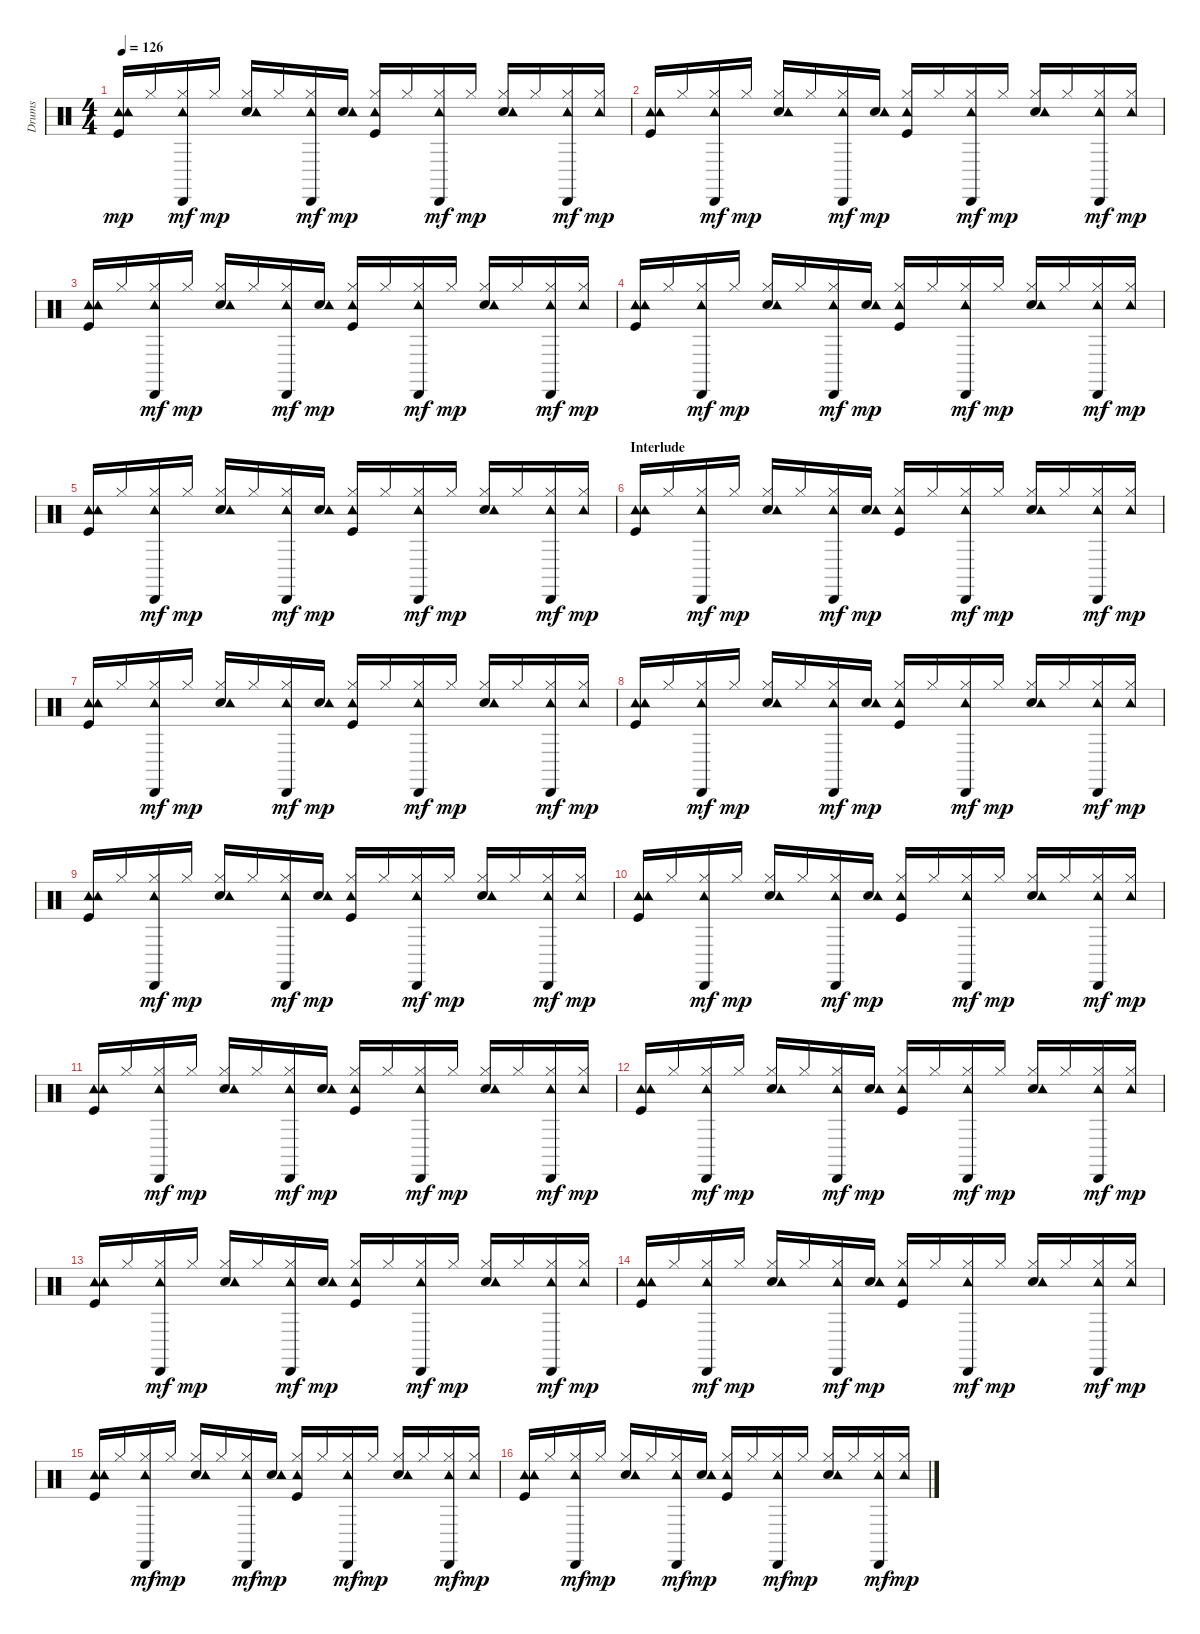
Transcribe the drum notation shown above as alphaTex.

\track ("Drums" "Drums") {instrument percussion}
\staff {score}
\articulation defaults
\ts (4 4)
\tempo 126
\clef neutral
\ks c
("Kick (hit)" "Tambourine (hit)" "Tambourine (hit)").16{dy mp} "Hi-Hat (closed)".16 ("Hi-Hat (closed)" "Tambourine (hit)" "Cabasa (hit)").16{dy mf} "Hi-Hat (closed)".16{dy mp} ("Snare (hit) 2" "Hi-Hat (closed)" "Tambourine (hit)").16 "Hi-Hat (closed)".16 ("Hi-Hat (closed)" "Tambourine (hit)" "Cabasa (hit)").16{dy mf} ("Snare (hit) 2" "Tambourine (hit)").16{dy mp} ("Kick (hit)" "Hi-Hat (closed)" "Tambourine (hit)").16 "Hi-Hat (closed)".16 ("Hi-Hat (closed)" "Tambourine (hit)" "Cabasa (hit)").16{dy mf} "Hi-Hat (closed)".16{dy mp} ("Snare (hit) 2" "Hi-Hat (closed)" "Tambourine (hit)").16 "Hi-Hat (closed)".16 ("Hi-Hat (closed)" "Tambourine (hit)" "Cabasa (hit)").16{dy mf} ("Hi-Hat (closed)" "Tambourine (hit)").16{dy mp} |
("Kick (hit)" "Tambourine (hit)" "Tambourine (hit)").16 "Hi-Hat (closed)".16 ("Hi-Hat (closed)" "Tambourine (hit)" "Cabasa (hit)").16{dy mf} "Hi-Hat (closed)".16{dy mp} ("Snare (hit) 2" "Hi-Hat (closed)" "Tambourine (hit)").16 "Hi-Hat (closed)".16 ("Hi-Hat (closed)" "Tambourine (hit)" "Cabasa (hit)").16{dy mf} ("Snare (hit) 2" "Tambourine (hit)").16{dy mp} ("Kick (hit)" "Hi-Hat (closed)" "Tambourine (hit)").16 "Hi-Hat (closed)".16 ("Hi-Hat (closed)" "Tambourine (hit)" "Cabasa (hit)").16{dy mf} "Hi-Hat (closed)".16{dy mp} ("Snare (hit) 2" "Hi-Hat (closed)" "Tambourine (hit)").16 "Hi-Hat (closed)".16 ("Hi-Hat (closed)" "Tambourine (hit)" "Cabasa (hit)").16{dy mf} ("Hi-Hat (closed)" "Tambourine (hit)").16{dy mp} |
("Kick (hit)" "Tambourine (hit)" "Tambourine (hit)").16 "Hi-Hat (closed)".16 ("Hi-Hat (closed)" "Tambourine (hit)" "Cabasa (hit)").16{dy mf} "Hi-Hat (closed)".16{dy mp} ("Snare (hit) 2" "Hi-Hat (closed)" "Tambourine (hit)").16 "Hi-Hat (closed)".16 ("Hi-Hat (closed)" "Tambourine (hit)" "Cabasa (hit)").16{dy mf} ("Snare (hit) 2" "Tambourine (hit)").16{dy mp} ("Kick (hit)" "Hi-Hat (closed)" "Tambourine (hit)").16 "Hi-Hat (closed)".16 ("Hi-Hat (closed)" "Tambourine (hit)" "Cabasa (hit)").16{dy mf} "Hi-Hat (closed)".16{dy mp} ("Snare (hit) 2" "Hi-Hat (closed)" "Tambourine (hit)").16 "Hi-Hat (closed)".16 ("Hi-Hat (closed)" "Tambourine (hit)" "Cabasa (hit)").16{dy mf} ("Hi-Hat (closed)" "Tambourine (hit)").16{dy mp} |
("Kick (hit)" "Tambourine (hit)" "Tambourine (hit)").16 "Hi-Hat (closed)".16 ("Hi-Hat (closed)" "Tambourine (hit)" "Cabasa (hit)").16{dy mf} "Hi-Hat (closed)".16{dy mp} ("Snare (hit) 2" "Hi-Hat (closed)" "Tambourine (hit)").16 "Hi-Hat (closed)".16 ("Hi-Hat (closed)" "Tambourine (hit)" "Cabasa (hit)").16{dy mf} ("Snare (hit) 2" "Tambourine (hit)").16{dy mp} ("Kick (hit)" "Hi-Hat (closed)" "Tambourine (hit)").16 "Hi-Hat (closed)".16 ("Hi-Hat (closed)" "Tambourine (hit)" "Cabasa (hit)").16{dy mf} "Hi-Hat (closed)".16{dy mp} ("Snare (hit) 2" "Hi-Hat (closed)" "Tambourine (hit)").16 "Hi-Hat (closed)".16 ("Hi-Hat (closed)" "Tambourine (hit)" "Cabasa (hit)").16{dy mf} ("Hi-Hat (closed)" "Tambourine (hit)").16{dy mp} |
("Kick (hit)" "Tambourine (hit)" "Tambourine (hit)").16 "Hi-Hat (closed)".16 ("Hi-Hat (closed)" "Tambourine (hit)" "Cabasa (hit)").16{dy mf} "Hi-Hat (closed)".16{dy mp} ("Snare (hit) 2" "Hi-Hat (closed)" "Tambourine (hit)").16 "Hi-Hat (closed)".16 ("Hi-Hat (closed)" "Tambourine (hit)" "Cabasa (hit)").16{dy mf} ("Snare (hit) 2" "Tambourine (hit)").16{dy mp} ("Kick (hit)" "Hi-Hat (closed)" "Tambourine (hit)").16 "Hi-Hat (closed)".16 ("Hi-Hat (closed)" "Tambourine (hit)" "Cabasa (hit)").16{dy mf} "Hi-Hat (closed)".16{dy mp} ("Snare (hit) 2" "Hi-Hat (closed)" "Tambourine (hit)").16 "Hi-Hat (closed)".16 ("Hi-Hat (closed)" "Tambourine (hit)" "Cabasa (hit)").16{dy mf} ("Hi-Hat (closed)" "Tambourine (hit)").16{dy mp} |
\section ("" "Interlude")
("Kick (hit)" "Tambourine (hit)" "Tambourine (hit)").16 "Hi-Hat (closed)".16 ("Hi-Hat (closed)" "Tambourine (hit)" "Cabasa (hit)").16{dy mf} "Hi-Hat (closed)".16{dy mp} ("Snare (hit) 2" "Hi-Hat (closed)" "Tambourine (hit)").16 "Hi-Hat (closed)".16 ("Hi-Hat (closed)" "Tambourine (hit)" "Cabasa (hit)").16{dy mf} ("Snare (hit) 2" "Tambourine (hit)").16{dy mp} ("Kick (hit)" "Hi-Hat (closed)" "Tambourine (hit)").16 "Hi-Hat (closed)".16 ("Hi-Hat (closed)" "Tambourine (hit)" "Cabasa (hit)").16{dy mf} "Hi-Hat (closed)".16{dy mp} ("Snare (hit) 2" "Hi-Hat (closed)" "Tambourine (hit)").16 "Hi-Hat (closed)".16 ("Hi-Hat (closed)" "Tambourine (hit)" "Cabasa (hit)").16{dy mf} ("Hi-Hat (closed)" "Tambourine (hit)").16{dy mp} |
("Kick (hit)" "Tambourine (hit)" "Tambourine (hit)").16 "Hi-Hat (closed)".16 ("Hi-Hat (closed)" "Tambourine (hit)" "Cabasa (hit)").16{dy mf} "Hi-Hat (closed)".16{dy mp} ("Snare (hit) 2" "Hi-Hat (closed)" "Tambourine (hit)").16 "Hi-Hat (closed)".16 ("Hi-Hat (closed)" "Tambourine (hit)" "Cabasa (hit)").16{dy mf} ("Snare (hit) 2" "Tambourine (hit)").16{dy mp} ("Kick (hit)" "Hi-Hat (closed)" "Tambourine (hit)").16 "Hi-Hat (closed)".16 ("Hi-Hat (closed)" "Tambourine (hit)" "Cabasa (hit)").16{dy mf} "Hi-Hat (closed)".16{dy mp} ("Snare (hit) 2" "Hi-Hat (closed)" "Tambourine (hit)").16 "Hi-Hat (closed)".16 ("Hi-Hat (closed)" "Tambourine (hit)" "Cabasa (hit)").16{dy mf} ("Hi-Hat (closed)" "Tambourine (hit)").16{dy mp} |
("Kick (hit)" "Tambourine (hit)" "Tambourine (hit)").16 "Hi-Hat (closed)".16 ("Hi-Hat (closed)" "Tambourine (hit)" "Cabasa (hit)").16{dy mf} "Hi-Hat (closed)".16{dy mp} ("Snare (hit) 2" "Hi-Hat (closed)" "Tambourine (hit)").16 "Hi-Hat (closed)".16 ("Hi-Hat (closed)" "Tambourine (hit)" "Cabasa (hit)").16{dy mf} ("Snare (hit) 2" "Tambourine (hit)").16{dy mp} ("Kick (hit)" "Hi-Hat (closed)" "Tambourine (hit)").16 "Hi-Hat (closed)".16 ("Hi-Hat (closed)" "Tambourine (hit)" "Cabasa (hit)").16{dy mf} "Hi-Hat (closed)".16{dy mp} ("Snare (hit) 2" "Hi-Hat (closed)" "Tambourine (hit)").16 "Hi-Hat (closed)".16 ("Hi-Hat (closed)" "Tambourine (hit)" "Cabasa (hit)").16{dy mf} ("Hi-Hat (closed)" "Tambourine (hit)").16{dy mp} |
("Kick (hit)" "Tambourine (hit)" "Tambourine (hit)").16 "Hi-Hat (closed)".16 ("Hi-Hat (closed)" "Tambourine (hit)" "Cabasa (hit)").16{dy mf} "Hi-Hat (closed)".16{dy mp} ("Snare (hit) 2" "Hi-Hat (closed)" "Tambourine (hit)").16 "Hi-Hat (closed)".16 ("Hi-Hat (closed)" "Tambourine (hit)" "Cabasa (hit)").16{dy mf} ("Snare (hit) 2" "Tambourine (hit)").16{dy mp} ("Kick (hit)" "Hi-Hat (closed)" "Tambourine (hit)").16 "Hi-Hat (closed)".16 ("Hi-Hat (closed)" "Tambourine (hit)" "Cabasa (hit)").16{dy mf} "Hi-Hat (closed)".16{dy mp} ("Snare (hit) 2" "Hi-Hat (closed)" "Tambourine (hit)").16 "Hi-Hat (closed)".16 ("Hi-Hat (closed)" "Tambourine (hit)" "Cabasa (hit)").16{dy mf} ("Hi-Hat (closed)" "Tambourine (hit)").16{dy mp} |
("Kick (hit)" "Tambourine (hit)" "Tambourine (hit)").16 "Hi-Hat (closed)".16 ("Hi-Hat (closed)" "Tambourine (hit)" "Cabasa (hit)").16{dy mf} "Hi-Hat (closed)".16{dy mp} ("Snare (hit) 2" "Hi-Hat (closed)" "Tambourine (hit)").16 "Hi-Hat (closed)".16 ("Hi-Hat (closed)" "Tambourine (hit)" "Cabasa (hit)").16{dy mf} ("Snare (hit) 2" "Tambourine (hit)").16{dy mp} ("Kick (hit)" "Hi-Hat (closed)" "Tambourine (hit)").16 "Hi-Hat (closed)".16 ("Hi-Hat (closed)" "Tambourine (hit)" "Cabasa (hit)").16{dy mf} "Hi-Hat (closed)".16{dy mp} ("Snare (hit) 2" "Hi-Hat (closed)" "Tambourine (hit)").16 "Hi-Hat (closed)".16 ("Hi-Hat (closed)" "Tambourine (hit)" "Cabasa (hit)").16{dy mf} ("Hi-Hat (closed)" "Tambourine (hit)").16{dy mp} |
("Kick (hit)" "Tambourine (hit)" "Tambourine (hit)").16 "Hi-Hat (closed)".16 ("Hi-Hat (closed)" "Tambourine (hit)" "Cabasa (hit)").16{dy mf} "Hi-Hat (closed)".16{dy mp} ("Snare (hit) 2" "Hi-Hat (closed)" "Tambourine (hit)").16 "Hi-Hat (closed)".16 ("Hi-Hat (closed)" "Tambourine (hit)" "Cabasa (hit)").16{dy mf} ("Snare (hit) 2" "Tambourine (hit)").16{dy mp} ("Kick (hit)" "Hi-Hat (closed)" "Tambourine (hit)").16 "Hi-Hat (closed)".16 ("Hi-Hat (closed)" "Tambourine (hit)" "Cabasa (hit)").16{dy mf} "Hi-Hat (closed)".16{dy mp} ("Snare (hit) 2" "Hi-Hat (closed)" "Tambourine (hit)").16 "Hi-Hat (closed)".16 ("Hi-Hat (closed)" "Tambourine (hit)" "Cabasa (hit)").16{dy mf} ("Hi-Hat (closed)" "Tambourine (hit)").16{dy mp} |
("Kick (hit)" "Tambourine (hit)" "Tambourine (hit)").16 "Hi-Hat (closed)".16 ("Hi-Hat (closed)" "Tambourine (hit)" "Cabasa (hit)").16{dy mf} "Hi-Hat (closed)".16{dy mp} ("Snare (hit) 2" "Hi-Hat (closed)" "Tambourine (hit)").16 "Hi-Hat (closed)".16 ("Hi-Hat (closed)" "Tambourine (hit)" "Cabasa (hit)").16{dy mf} ("Snare (hit) 2" "Tambourine (hit)").16{dy mp} ("Kick (hit)" "Hi-Hat (closed)" "Tambourine (hit)").16 "Hi-Hat (closed)".16 ("Hi-Hat (closed)" "Tambourine (hit)" "Cabasa (hit)").16{dy mf} "Hi-Hat (closed)".16{dy mp} ("Snare (hit) 2" "Hi-Hat (closed)" "Tambourine (hit)").16 "Hi-Hat (closed)".16 ("Hi-Hat (closed)" "Tambourine (hit)" "Cabasa (hit)").16{dy mf} ("Hi-Hat (closed)" "Tambourine (hit)").16{dy mp} |
("Kick (hit)" "Tambourine (hit)" "Tambourine (hit)").16 "Hi-Hat (closed)".16 ("Hi-Hat (closed)" "Tambourine (hit)" "Cabasa (hit)").16{dy mf} "Hi-Hat (closed)".16{dy mp} ("Snare (hit) 2" "Hi-Hat (closed)" "Tambourine (hit)").16 "Hi-Hat (closed)".16 ("Hi-Hat (closed)" "Tambourine (hit)" "Cabasa (hit)").16{dy mf} ("Snare (hit) 2" "Tambourine (hit)").16{dy mp} ("Kick (hit)" "Hi-Hat (closed)" "Tambourine (hit)").16 "Hi-Hat (closed)".16 ("Hi-Hat (closed)" "Tambourine (hit)" "Cabasa (hit)").16{dy mf} "Hi-Hat (closed)".16{dy mp} ("Snare (hit) 2" "Hi-Hat (closed)" "Tambourine (hit)").16 "Hi-Hat (closed)".16 ("Hi-Hat (closed)" "Tambourine (hit)" "Cabasa (hit)").16{dy mf} ("Hi-Hat (closed)" "Tambourine (hit)").16{dy mp} |
("Kick (hit)" "Tambourine (hit)" "Tambourine (hit)").16 "Hi-Hat (closed)".16 ("Hi-Hat (closed)" "Tambourine (hit)" "Cabasa (hit)").16{dy mf} "Hi-Hat (closed)".16{dy mp} ("Snare (hit) 2" "Hi-Hat (closed)" "Tambourine (hit)").16 "Hi-Hat (closed)".16 ("Hi-Hat (closed)" "Tambourine (hit)" "Cabasa (hit)").16{dy mf} ("Snare (hit) 2" "Tambourine (hit)").16{dy mp} ("Kick (hit)" "Hi-Hat (closed)" "Tambourine (hit)").16 "Hi-Hat (closed)".16 ("Hi-Hat (closed)" "Tambourine (hit)" "Cabasa (hit)").16{dy mf} "Hi-Hat (closed)".16{dy mp} ("Snare (hit) 2" "Hi-Hat (closed)" "Tambourine (hit)").16 "Hi-Hat (closed)".16 ("Hi-Hat (closed)" "Tambourine (hit)" "Cabasa (hit)").16{dy mf} ("Hi-Hat (closed)" "Tambourine (hit)").16{dy mp} |
("Kick (hit)" "Tambourine (hit)" "Tambourine (hit)").16 "Hi-Hat (closed)".16 ("Hi-Hat (closed)" "Tambourine (hit)" "Cabasa (hit)").16{dy mf} "Hi-Hat (closed)".16{dy mp} ("Snare (hit) 2" "Hi-Hat (closed)" "Tambourine (hit)").16 "Hi-Hat (closed)".16 ("Hi-Hat (closed)" "Tambourine (hit)" "Cabasa (hit)").16{dy mf} ("Snare (hit) 2" "Tambourine (hit)").16{dy mp} ("Kick (hit)" "Hi-Hat (closed)" "Tambourine (hit)").16 "Hi-Hat (closed)".16 ("Hi-Hat (closed)" "Tambourine (hit)" "Cabasa (hit)").16{dy mf} "Hi-Hat (closed)".16{dy mp} ("Snare (hit) 2" "Hi-Hat (closed)" "Tambourine (hit)").16 "Hi-Hat (closed)".16 ("Hi-Hat (closed)" "Tambourine (hit)" "Cabasa (hit)").16{dy mf} ("Hi-Hat (closed)" "Tambourine (hit)").16{dy mp} |
("Kick (hit)" "Tambourine (hit)" "Tambourine (hit)").16 "Hi-Hat (closed)".16 ("Hi-Hat (closed)" "Tambourine (hit)" "Cabasa (hit)").16{dy mf} "Hi-Hat (closed)".16{dy mp} ("Snare (hit) 2" "Hi-Hat (closed)" "Tambourine (hit)").16 "Hi-Hat (closed)".16 ("Hi-Hat (closed)" "Tambourine (hit)" "Cabasa (hit)").16{dy mf} ("Snare (hit) 2" "Tambourine (hit)").16{dy mp} ("Kick (hit)" "Hi-Hat (closed)" "Tambourine (hit)").16 "Hi-Hat (closed)".16 ("Hi-Hat (closed)" "Tambourine (hit)" "Cabasa (hit)").16{dy mf} "Hi-Hat (closed)".16{dy mp} ("Snare (hit) 2" "Hi-Hat (closed)" "Tambourine (hit)").16 "Hi-Hat (closed)".16 ("Hi-Hat (closed)" "Tambourine (hit)" "Cabasa (hit)").16{dy mf} ("Hi-Hat (closed)" "Tambourine (hit)").16{dy mp}
